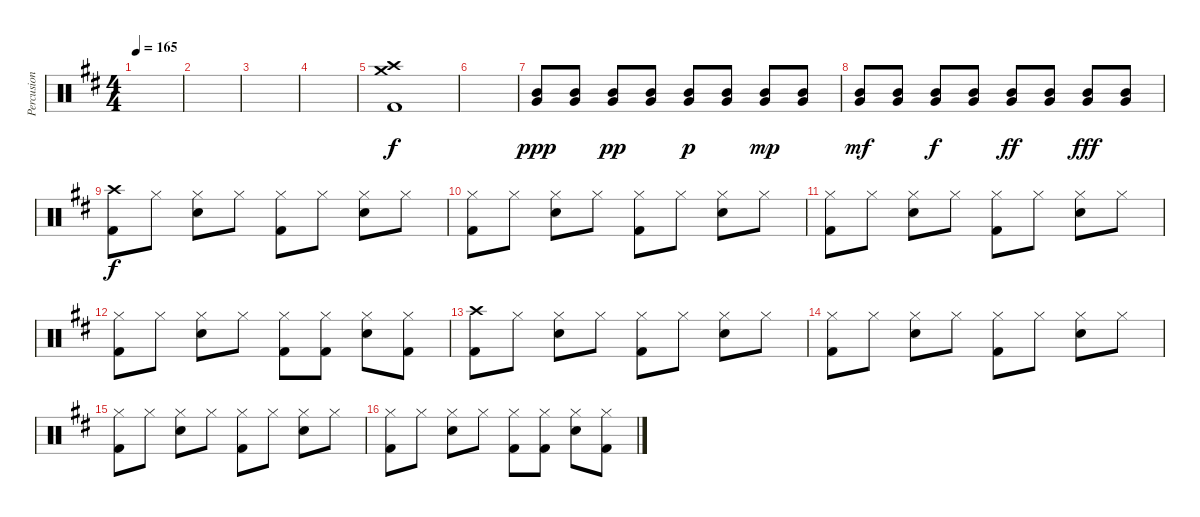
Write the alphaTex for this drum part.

\track ("Percusion" "Percusion") {instrument percussion}
\staff {score}
\articulation defaults
\ts (4 4)
\tempo 165
\clef neutral
\ks d
|
|
|
|
("Crash high (hit)" "Crash medium (hit)" "Kick (hit) 2").1 |
|
("Mid Tom (hit)" "Very Low Tom (hit)").8{dy ppp} ("Mid Tom (hit)" "Very Low Tom (hit)").8 ("Mid Tom (hit)" "Very Low Tom (hit)").8{dy pp} ("Mid Tom (hit)" "Very Low Tom (hit)").8 ("Mid Tom (hit)" "Very Low Tom (hit)").8{dy p} ("Mid Tom (hit)" "Very Low Tom (hit)").8 ("Mid Tom (hit)" "Very Low Tom (hit)").8{dy mp} ("Mid Tom (hit)" "Very Low Tom (hit)").8 |
("Mid Tom (hit)" "Very Low Tom (hit)").8{dy mf} ("Mid Tom (hit)" "Very Low Tom (hit)").8 ("Mid Tom (hit)" "Very Low Tom (hit)").8{dy f} ("Mid Tom (hit)" "Very Low Tom (hit)").8 ("Mid Tom (hit)" "Very Low Tom (hit)").8{dy ff} ("Mid Tom (hit)" "Very Low Tom (hit)").8 ("Mid Tom (hit)" "Very Low Tom (hit)").8{dy fff} ("Mid Tom (hit)" "Very Low Tom (hit)").8 |
("Crash high (hit)" "Kick (hit) 2").8{dy f} "Hi-Hat (closed)".8 ("Hi-Hat (closed)" "Electric Snare (hit)").8 "Hi-Hat (closed)".8 ("Hi-Hat (closed)" "Kick (hit) 2").8 "Hi-Hat (closed)".8 ("Hi-Hat (closed)" "Electric Snare (hit)").8 "Hi-Hat (closed)".8 |
("Hi-Hat (closed)" "Kick (hit) 2").8 "Hi-Hat (closed)".8 ("Hi-Hat (closed)" "Electric Snare (hit)").8 "Hi-Hat (closed)".8 ("Hi-Hat (closed)" "Kick (hit) 2").8 "Hi-Hat (closed)".8 ("Hi-Hat (closed)" "Electric Snare (hit)").8 "Hi-Hat (closed)".8 |
("Hi-Hat (closed)" "Kick (hit) 2").8 "Hi-Hat (closed)".8 ("Hi-Hat (closed)" "Electric Snare (hit)").8 "Hi-Hat (closed)".8 ("Hi-Hat (closed)" "Kick (hit) 2").8 "Hi-Hat (closed)".8 ("Hi-Hat (closed)" "Electric Snare (hit)").8 "Hi-Hat (closed)".8 |
("Hi-Hat (closed)" "Kick (hit) 2").8 "Hi-Hat (closed)".8 ("Hi-Hat (closed)" "Electric Snare (hit)").8 "Hi-Hat (closed)".8 ("Hi-Hat (closed)" "Kick (hit) 2").8 ("Hi-Hat (closed)" "Kick (hit) 2").8 ("Hi-Hat (closed)" "Electric Snare (hit)").8 ("Hi-Hat (closed)" "Kick (hit) 2").8 |
("Crash high (hit)" "Kick (hit) 2").8 "Hi-Hat (closed)".8 ("Hi-Hat (closed)" "Electric Snare (hit)").8 "Hi-Hat (closed)".8 ("Hi-Hat (closed)" "Kick (hit) 2").8 "Hi-Hat (closed)".8 ("Hi-Hat (closed)" "Electric Snare (hit)").8 "Hi-Hat (closed)".8 |
("Hi-Hat (closed)" "Kick (hit) 2").8 "Hi-Hat (closed)".8 ("Hi-Hat (closed)" "Electric Snare (hit)").8 "Hi-Hat (closed)".8 ("Hi-Hat (closed)" "Kick (hit) 2").8 "Hi-Hat (closed)".8 ("Hi-Hat (closed)" "Electric Snare (hit)").8 "Hi-Hat (closed)".8 |
("Hi-Hat (closed)" "Kick (hit) 2").8 "Hi-Hat (closed)".8 ("Hi-Hat (closed)" "Electric Snare (hit)").8 "Hi-Hat (closed)".8 ("Hi-Hat (closed)" "Kick (hit) 2").8 "Hi-Hat (closed)".8 ("Hi-Hat (closed)" "Electric Snare (hit)").8 "Hi-Hat (closed)".8 |
("Hi-Hat (closed)" "Kick (hit) 2").8 "Hi-Hat (closed)".8 ("Hi-Hat (closed)" "Electric Snare (hit)").8 "Hi-Hat (closed)".8 ("Hi-Hat (closed)" "Kick (hit) 2").8 ("Hi-Hat (closed)" "Kick (hit) 2").8 ("Hi-Hat (closed)" "Electric Snare (hit)").8 ("Hi-Hat (closed)" "Kick (hit) 2").8
